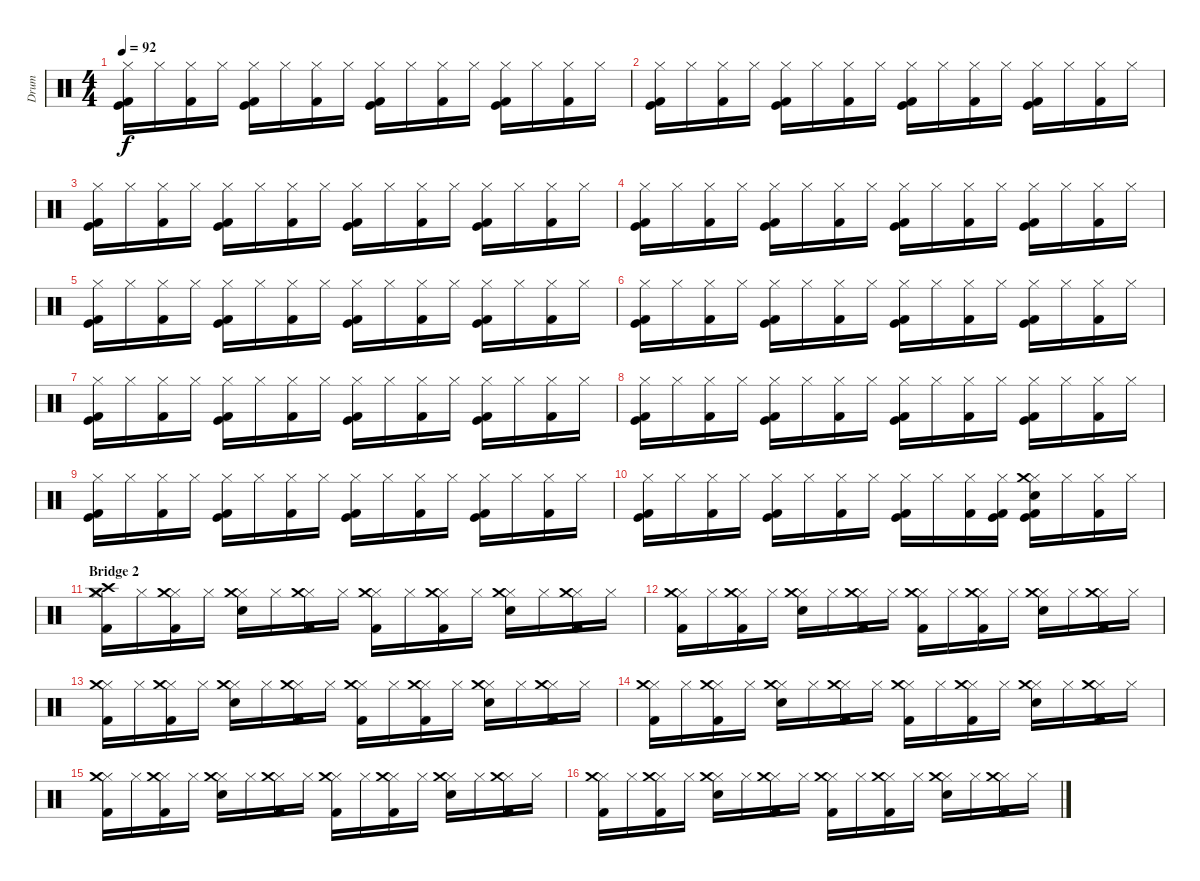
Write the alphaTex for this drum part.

\track ("Drum" "Drum") {instrument percussion}
\staff {score}
\articulation defaults
\ts (4 4)
\tempo 92
\clef neutral
\ks c
("Hi-Hat (closed)" "Kick (hit)" "Kick (hit) 2").16{dy f} "Hi-Hat (closed)".16 ("Hi-Hat (closed)" "Kick (hit) 2").16 "Hi-Hat (closed)".16 ("Hi-Hat (closed)" "Kick (hit)" "Kick (hit) 2").16 "Hi-Hat (closed)".16 ("Hi-Hat (closed)" "Kick (hit) 2").16 "Hi-Hat (closed)".16 ("Hi-Hat (closed)" "Kick (hit)" "Kick (hit) 2").16 "Hi-Hat (closed)".16 ("Hi-Hat (closed)" "Kick (hit) 2").16 "Hi-Hat (closed)".16 ("Hi-Hat (closed)" "Kick (hit)" "Kick (hit) 2").16 "Hi-Hat (closed)".16 ("Hi-Hat (closed)" "Kick (hit) 2").16 "Hi-Hat (closed)".16 |
("Hi-Hat (closed)" "Kick (hit)" "Kick (hit) 2").16 "Hi-Hat (closed)".16 ("Hi-Hat (closed)" "Kick (hit) 2").16 "Hi-Hat (closed)".16 ("Hi-Hat (closed)" "Kick (hit)" "Kick (hit) 2").16 "Hi-Hat (closed)".16 ("Hi-Hat (closed)" "Kick (hit) 2").16 "Hi-Hat (closed)".16 ("Hi-Hat (closed)" "Kick (hit)" "Kick (hit) 2").16 "Hi-Hat (closed)".16 ("Hi-Hat (closed)" "Kick (hit) 2").16 "Hi-Hat (closed)".16 ("Hi-Hat (closed)" "Kick (hit)" "Kick (hit) 2").16 "Hi-Hat (closed)".16 ("Hi-Hat (closed)" "Kick (hit) 2").16 "Hi-Hat (closed)".16 |
("Hi-Hat (closed)" "Kick (hit)" "Kick (hit) 2").16 "Hi-Hat (closed)".16 ("Hi-Hat (closed)" "Kick (hit) 2").16 "Hi-Hat (closed)".16 ("Hi-Hat (closed)" "Kick (hit)" "Kick (hit) 2").16 "Hi-Hat (closed)".16 ("Hi-Hat (closed)" "Kick (hit) 2").16 "Hi-Hat (closed)".16 ("Hi-Hat (closed)" "Kick (hit)" "Kick (hit) 2").16 "Hi-Hat (closed)".16 ("Hi-Hat (closed)" "Kick (hit) 2").16 "Hi-Hat (closed)".16 ("Hi-Hat (closed)" "Kick (hit)" "Kick (hit) 2").16 "Hi-Hat (closed)".16 ("Hi-Hat (closed)" "Kick (hit) 2").16 "Hi-Hat (closed)".16 |
("Hi-Hat (closed)" "Kick (hit)" "Kick (hit) 2").16 "Hi-Hat (closed)".16 ("Hi-Hat (closed)" "Kick (hit) 2").16 "Hi-Hat (closed)".16 ("Hi-Hat (closed)" "Kick (hit)" "Kick (hit) 2").16 "Hi-Hat (closed)".16 ("Hi-Hat (closed)" "Kick (hit) 2").16 "Hi-Hat (closed)".16 ("Hi-Hat (closed)" "Kick (hit)" "Kick (hit) 2").16 "Hi-Hat (closed)".16 ("Hi-Hat (closed)" "Kick (hit) 2").16 "Hi-Hat (closed)".16 ("Hi-Hat (closed)" "Kick (hit)" "Kick (hit) 2").16 "Hi-Hat (closed)".16 ("Hi-Hat (closed)" "Kick (hit) 2").16 "Hi-Hat (closed)".16 |
("Hi-Hat (closed)" "Kick (hit)" "Kick (hit) 2").16 "Hi-Hat (closed)".16 ("Hi-Hat (closed)" "Kick (hit) 2").16 "Hi-Hat (closed)".16 ("Hi-Hat (closed)" "Kick (hit)" "Kick (hit) 2").16 "Hi-Hat (closed)".16 ("Hi-Hat (closed)" "Kick (hit) 2").16 "Hi-Hat (closed)".16 ("Hi-Hat (closed)" "Kick (hit)" "Kick (hit) 2").16 "Hi-Hat (closed)".16 ("Hi-Hat (closed)" "Kick (hit) 2").16 "Hi-Hat (closed)".16 ("Hi-Hat (closed)" "Kick (hit)" "Kick (hit) 2").16 "Hi-Hat (closed)".16 ("Hi-Hat (closed)" "Kick (hit) 2").16 "Hi-Hat (closed)".16 |
("Hi-Hat (closed)" "Kick (hit)" "Kick (hit) 2").16 "Hi-Hat (closed)".16 ("Hi-Hat (closed)" "Kick (hit) 2").16 "Hi-Hat (closed)".16 ("Hi-Hat (closed)" "Kick (hit)" "Kick (hit) 2").16 "Hi-Hat (closed)".16 ("Hi-Hat (closed)" "Kick (hit) 2").16 "Hi-Hat (closed)".16 ("Hi-Hat (closed)" "Kick (hit)" "Kick (hit) 2").16 "Hi-Hat (closed)".16 ("Hi-Hat (closed)" "Kick (hit) 2").16 "Hi-Hat (closed)".16 ("Hi-Hat (closed)" "Kick (hit)" "Kick (hit) 2").16 "Hi-Hat (closed)".16 ("Hi-Hat (closed)" "Kick (hit) 2").16 "Hi-Hat (closed)".16 |
("Hi-Hat (closed)" "Kick (hit)" "Kick (hit) 2").16 "Hi-Hat (closed)".16 ("Hi-Hat (closed)" "Kick (hit) 2").16 "Hi-Hat (closed)".16 ("Hi-Hat (closed)" "Kick (hit)" "Kick (hit) 2").16 "Hi-Hat (closed)".16 ("Hi-Hat (closed)" "Kick (hit) 2").16 "Hi-Hat (closed)".16 ("Hi-Hat (closed)" "Kick (hit)" "Kick (hit) 2").16 "Hi-Hat (closed)".16 ("Hi-Hat (closed)" "Kick (hit) 2").16 "Hi-Hat (closed)".16 ("Hi-Hat (closed)" "Kick (hit)" "Kick (hit) 2").16 "Hi-Hat (closed)".16 ("Hi-Hat (closed)" "Kick (hit) 2").16 "Hi-Hat (closed)".16 |
("Hi-Hat (closed)" "Kick (hit)" "Kick (hit) 2").16 "Hi-Hat (closed)".16 ("Hi-Hat (closed)" "Kick (hit) 2").16 "Hi-Hat (closed)".16 ("Hi-Hat (closed)" "Kick (hit)" "Kick (hit) 2").16 "Hi-Hat (closed)".16 ("Hi-Hat (closed)" "Kick (hit) 2").16 "Hi-Hat (closed)".16 ("Hi-Hat (closed)" "Kick (hit)" "Kick (hit) 2").16 "Hi-Hat (closed)".16 ("Hi-Hat (closed)" "Kick (hit) 2").16 "Hi-Hat (closed)".16 ("Hi-Hat (closed)" "Kick (hit)" "Kick (hit) 2").16 "Hi-Hat (closed)".16 ("Hi-Hat (closed)" "Kick (hit) 2").16 "Hi-Hat (closed)".16 |
("Hi-Hat (closed)" "Kick (hit)" "Kick (hit) 2").16 "Hi-Hat (closed)".16 ("Hi-Hat (closed)" "Kick (hit) 2").16 "Hi-Hat (closed)".16 ("Hi-Hat (closed)" "Kick (hit)" "Kick (hit) 2").16 "Hi-Hat (closed)".16 ("Hi-Hat (closed)" "Kick (hit) 2").16 "Hi-Hat (closed)".16 ("Hi-Hat (closed)" "Kick (hit)" "Kick (hit) 2").16 "Hi-Hat (closed)".16 ("Hi-Hat (closed)" "Kick (hit) 2").16 "Hi-Hat (closed)".16 ("Hi-Hat (closed)" "Kick (hit)" "Kick (hit) 2").16 "Hi-Hat (closed)".16 ("Hi-Hat (closed)" "Kick (hit) 2").16 "Hi-Hat (closed)".16 |
("Hi-Hat (closed)" "Kick (hit)" "Kick (hit) 2").16 "Hi-Hat (closed)".16 ("Hi-Hat (closed)" "Kick (hit) 2").16 "Hi-Hat (closed)".16 ("Hi-Hat (closed)" "Kick (hit)" "Kick (hit) 2").16 "Hi-Hat (closed)".16 ("Hi-Hat (closed)" "Kick (hit) 2").16 "Hi-Hat (closed)".16 ("Hi-Hat (closed)" "Kick (hit)" "Kick (hit) 2").16 "Hi-Hat (closed)".16 ("Hi-Hat (closed)" "Kick (hit) 2").16 ("Hi-Hat (closed)" "Kick (hit)" "Kick (hit) 2").16 ("Hi-Hat (closed)" "Crash medium (hit)" "Snare (hit) 2" "Kick (hit)" "Kick (hit) 2").16 "Hi-Hat (closed)".16 ("Hi-Hat (closed)" "Kick (hit) 2").16 "Hi-Hat (closed)".16 |
\section ("" "Bridge 2")
("Hi-Hat (closed)" "Crash medium (hit)" "Crash high (hit)" "Kick (hit) 2").16 "Hi-Hat (closed)".16 ("Hi-Hat (closed)" "Crash medium (hit)" "Kick (hit) 2").16 "Hi-Hat (closed)".16 ("Hi-Hat (closed)" "Crash medium (hit)" "Snare (hit) 2").16 "Hi-Hat (closed)".16 ("Hi-Hat (closed)" "Crash medium (hit)" "Kick (hit) 2").16 "Hi-Hat (closed)".16 ("Hi-Hat (closed)" "Crash medium (hit)" "Kick (hit) 2").16 "Hi-Hat (closed)".16 ("Hi-Hat (closed)" "Crash medium (hit)" "Kick (hit) 2").16 "Hi-Hat (closed)".16 ("Hi-Hat (closed)" "Crash medium (hit)" "Snare (hit) 2").16 "Hi-Hat (closed)".16 ("Hi-Hat (closed)" "Crash medium (hit)" "Kick (hit) 2").16 "Hi-Hat (closed)".16 |
("Hi-Hat (closed)" "Crash medium (hit)" "Kick (hit) 2").16 "Hi-Hat (closed)".16 ("Hi-Hat (closed)" "Crash medium (hit)" "Kick (hit) 2").16 "Hi-Hat (closed)".16 ("Hi-Hat (closed)" "Crash medium (hit)" "Snare (hit) 2").16 "Hi-Hat (closed)".16 ("Hi-Hat (closed)" "Crash medium (hit)" "Kick (hit) 2").16 "Hi-Hat (closed)".16 ("Hi-Hat (closed)" "Crash medium (hit)" "Kick (hit) 2").16 "Hi-Hat (closed)".16 ("Hi-Hat (closed)" "Crash medium (hit)" "Kick (hit) 2").16 "Hi-Hat (closed)".16 ("Hi-Hat (closed)" "Crash medium (hit)" "Snare (hit) 2").16 "Hi-Hat (closed)".16 ("Hi-Hat (closed)" "Crash medium (hit)" "Kick (hit) 2").16 "Hi-Hat (closed)".16 |
("Hi-Hat (closed)" "Crash medium (hit)" "Kick (hit) 2").16 "Hi-Hat (closed)".16 ("Hi-Hat (closed)" "Crash medium (hit)" "Kick (hit) 2").16 "Hi-Hat (closed)".16 ("Hi-Hat (closed)" "Crash medium (hit)" "Snare (hit) 2").16 "Hi-Hat (closed)".16 ("Hi-Hat (closed)" "Crash medium (hit)" "Kick (hit) 2").16 "Hi-Hat (closed)".16 ("Hi-Hat (closed)" "Crash medium (hit)" "Kick (hit) 2").16 "Hi-Hat (closed)".16 ("Hi-Hat (closed)" "Crash medium (hit)" "Kick (hit) 2").16 "Hi-Hat (closed)".16 ("Hi-Hat (closed)" "Crash medium (hit)" "Snare (hit) 2").16 "Hi-Hat (closed)".16 ("Hi-Hat (closed)" "Crash medium (hit)" "Kick (hit) 2").16 "Hi-Hat (closed)".16 |
("Hi-Hat (closed)" "Crash medium (hit)" "Kick (hit) 2").16 "Hi-Hat (closed)".16 ("Hi-Hat (closed)" "Crash medium (hit)" "Kick (hit) 2").16 "Hi-Hat (closed)".16 ("Hi-Hat (closed)" "Crash medium (hit)" "Snare (hit) 2").16 "Hi-Hat (closed)".16 ("Hi-Hat (closed)" "Crash medium (hit)" "Kick (hit) 2").16 "Hi-Hat (closed)".16 ("Hi-Hat (closed)" "Crash medium (hit)" "Kick (hit) 2").16 "Hi-Hat (closed)".16 ("Hi-Hat (closed)" "Crash medium (hit)" "Kick (hit) 2").16 "Hi-Hat (closed)".16 ("Hi-Hat (closed)" "Crash medium (hit)" "Snare (hit) 2").16 "Hi-Hat (closed)".16 ("Hi-Hat (closed)" "Crash medium (hit)" "Kick (hit) 2").16 "Hi-Hat (closed)".16 |
("Hi-Hat (closed)" "Crash medium (hit)" "Kick (hit) 2").16 "Hi-Hat (closed)".16 ("Hi-Hat (closed)" "Crash medium (hit)" "Kick (hit) 2").16 "Hi-Hat (closed)".16 ("Hi-Hat (closed)" "Crash medium (hit)" "Snare (hit) 2").16 "Hi-Hat (closed)".16 ("Hi-Hat (closed)" "Crash medium (hit)" "Kick (hit) 2").16 "Hi-Hat (closed)".16 ("Hi-Hat (closed)" "Crash medium (hit)" "Kick (hit) 2").16 "Hi-Hat (closed)".16 ("Hi-Hat (closed)" "Crash medium (hit)" "Kick (hit) 2").16 "Hi-Hat (closed)".16 ("Hi-Hat (closed)" "Crash medium (hit)" "Snare (hit) 2").16 "Hi-Hat (closed)".16 ("Hi-Hat (closed)" "Crash medium (hit)" "Kick (hit) 2").16 "Hi-Hat (closed)".16 |
("Hi-Hat (closed)" "Crash medium (hit)" "Kick (hit) 2").16 "Hi-Hat (closed)".16 ("Hi-Hat (closed)" "Crash medium (hit)" "Kick (hit) 2").16 "Hi-Hat (closed)".16 ("Hi-Hat (closed)" "Crash medium (hit)" "Snare (hit) 2").16 "Hi-Hat (closed)".16 ("Hi-Hat (closed)" "Crash medium (hit)" "Kick (hit) 2").16 "Hi-Hat (closed)".16 ("Hi-Hat (closed)" "Crash medium (hit)" "Kick (hit) 2").16 "Hi-Hat (closed)".16 ("Hi-Hat (closed)" "Crash medium (hit)" "Kick (hit) 2").16 "Hi-Hat (closed)".16 ("Hi-Hat (closed)" "Crash medium (hit)" "Snare (hit) 2").16 "Hi-Hat (closed)".16 ("Hi-Hat (closed)" "Crash medium (hit)" "Kick (hit) 2").16 "Hi-Hat (closed)".16
